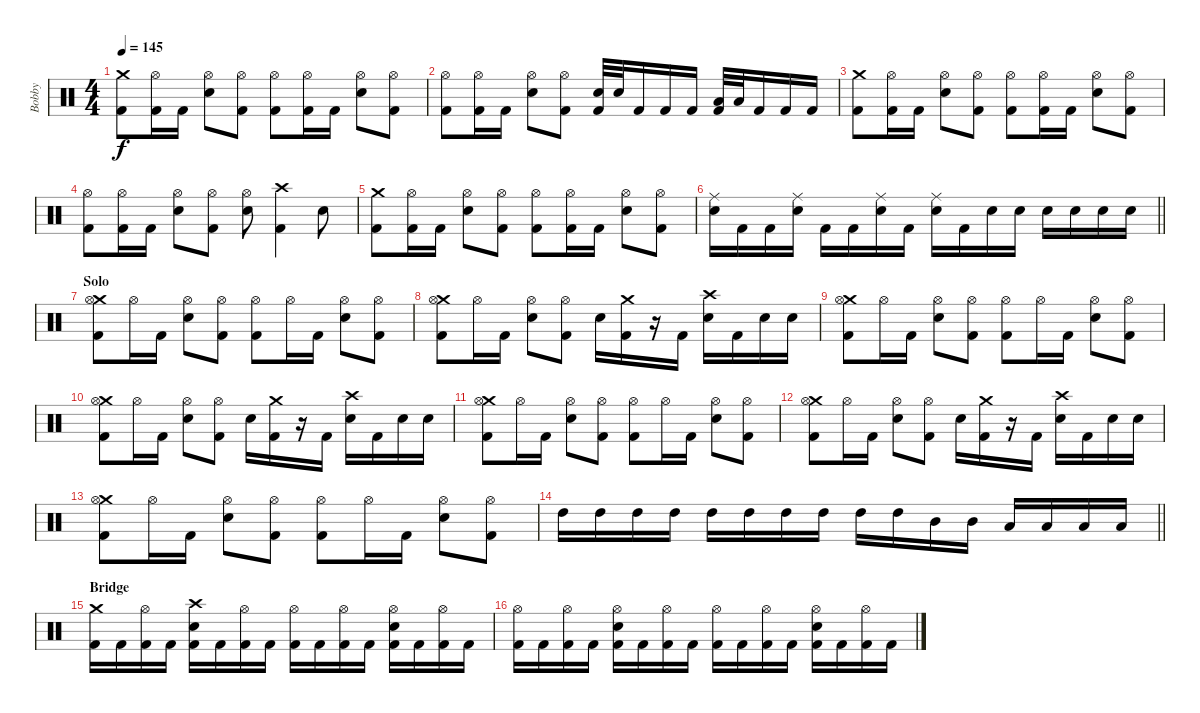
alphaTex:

\track ("Bobby" "Bobby") {instrument percussion}
\staff {score}
\articulation defaults
\ts (4 4)
\tempo 145
\clef neutral
\ks c
("Crash medium (hit)" "Kick (hit) 2").8{dy f} ("Hi-Hat (open)" "Kick (hit) 2").16 "Kick (hit) 2".16 ("Hi-Hat (open)" "Electric Snare (hit)").8 ("Hi-Hat (open)" "Kick (hit) 2").8 ("Hi-Hat (open)" "Kick (hit) 2").8 ("Hi-Hat (open)" "Kick (hit) 2").16 "Kick (hit) 2".16 ("Hi-Hat (open)" "Electric Snare (hit)").8 ("Hi-Hat (open)" "Kick (hit) 2").8 |
("Hi-Hat (open)" "Kick (hit) 2").8 ("Hi-Hat (open)" "Kick (hit) 2").16 "Kick (hit) 2".16 ("Hi-Hat (open)" "Electric Snare (hit)").8 ("Hi-Hat (open)" "Kick (hit) 2").8 ("Electric Snare (hit)" "Kick (hit) 2").32 "Electric Snare (hit)".32 "Kick (hit) 2".16 "Kick (hit) 2".16 "Kick (hit) 2".16 ("Low Tom (hit)" "Kick (hit) 2").32 "Low Tom (hit)".32 "Kick (hit) 2".16 "Kick (hit) 2".16 "Kick (hit) 2".16 |
("Crash medium (hit)" "Kick (hit) 2").8 ("Hi-Hat (open)" "Kick (hit) 2").16 "Kick (hit) 2".16 ("Hi-Hat (open)" "Electric Snare (hit)").8 ("Hi-Hat (open)" "Kick (hit) 2").8 ("Hi-Hat (open)" "Kick (hit) 2").8 ("Hi-Hat (open)" "Kick (hit) 2").16 "Kick (hit) 2".16 ("Hi-Hat (open)" "Electric Snare (hit)").8 ("Hi-Hat (open)" "Kick (hit) 2").8 |
("Hi-Hat (open)" "Kick (hit) 2").8 ("Hi-Hat (open)" "Kick (hit) 2").16 "Kick (hit) 2".16 ("Hi-Hat (open)" "Electric Snare (hit)").8 ("Hi-Hat (open)" "Kick (hit) 2").8 ("Hi-Hat (open)" "Electric Snare (hit)").8 ("Crash high (hit)" "Kick (hit) 2").4 "Electric Snare (hit)".8 |
("Crash medium (hit)" "Kick (hit) 2").8 ("Hi-Hat (open)" "Kick (hit) 2").16 "Kick (hit) 2".16 ("Hi-Hat (open)" "Electric Snare (hit)").8 ("Hi-Hat (open)" "Kick (hit) 2").8 ("Hi-Hat (open)" "Kick (hit) 2").8 ("Hi-Hat (open)" "Kick (hit) 2").16 "Kick (hit) 2".16 ("Hi-Hat (open)" "Electric Snare (hit)").8 ("Hi-Hat (open)" "Kick (hit) 2").8 |
\barLineRight lightlight
("Ride (middle)" "Electric Snare (hit)").16 "Kick (hit) 2".16 "Kick (hit) 2".16 ("Ride (middle)" "Electric Snare (hit)").16 "Kick (hit) 2".16 "Kick (hit) 2".16 ("Ride (middle)" "Electric Snare (hit)").16 "Kick (hit) 2".16 ("Ride (middle)" "Electric Snare (hit)").16 "Kick (hit) 2".16 "Electric Snare (hit)".16 "Electric Snare (hit)".16 "Electric Snare (hit)".16 "Electric Snare (hit)".16 "Electric Snare (hit)".16 "Electric Snare (hit)".16 |
\section ("" "Solo")
("Crash medium (hit)" "Hi-Hat (open)" "Kick (hit) 2").8 "Hi-Hat (open)".16 "Kick (hit) 2".16 ("Hi-Hat (open)" "Electric Snare (hit)").8 ("Hi-Hat (open)" "Kick (hit) 2").8 ("Hi-Hat (open)" "Kick (hit) 2").8 "Hi-Hat (open)".16 "Kick (hit) 2".16 ("Hi-Hat (open)" "Electric Snare (hit)").8 ("Hi-Hat (open)" "Kick (hit) 2").8 |
("Crash medium (hit)" "Hi-Hat (open)" "Kick (hit) 2").8 "Hi-Hat (open)".16 "Kick (hit) 2".16 ("Hi-Hat (open)" "Electric Snare (hit)").8 ("Hi-Hat (open)" "Kick (hit) 2").8 "Electric Snare (hit)".16 ("Crash medium (hit)" "Kick (hit) 2").16 r.16 "Kick (hit) 2".16 ("Crash high (hit)" "Electric Snare (hit)").16 "Kick (hit) 2".16 "Electric Snare (hit)".16 "Electric Snare (hit)".16 |
("Crash medium (hit)" "Hi-Hat (open)" "Kick (hit) 2").8 "Hi-Hat (open)".16 "Kick (hit) 2".16 ("Hi-Hat (open)" "Electric Snare (hit)").8 ("Hi-Hat (open)" "Kick (hit) 2").8 ("Hi-Hat (open)" "Kick (hit) 2").8 "Hi-Hat (open)".16 "Kick (hit) 2".16 ("Hi-Hat (open)" "Electric Snare (hit)").8 ("Hi-Hat (open)" "Kick (hit) 2").8 |
("Crash medium (hit)" "Hi-Hat (open)" "Kick (hit) 2").8 "Hi-Hat (open)".16 "Kick (hit) 2".16 ("Hi-Hat (open)" "Electric Snare (hit)").8 ("Hi-Hat (open)" "Kick (hit) 2").8 "Electric Snare (hit)".16 ("Crash medium (hit)" "Kick (hit) 2").16 r.16 "Kick (hit) 2".16 ("Crash high (hit)" "Electric Snare (hit)").16 "Kick (hit) 2".16 "Electric Snare (hit)".16 "Electric Snare (hit)".16 |
("Crash medium (hit)" "Hi-Hat (open)" "Kick (hit) 2").8 "Hi-Hat (open)".16 "Kick (hit) 2".16 ("Hi-Hat (open)" "Electric Snare (hit)").8 ("Hi-Hat (open)" "Kick (hit) 2").8 ("Hi-Hat (open)" "Kick (hit) 2").8 "Hi-Hat (open)".16 "Kick (hit) 2".16 ("Hi-Hat (open)" "Electric Snare (hit)").8 ("Hi-Hat (open)" "Kick (hit) 2").8 |
("Crash medium (hit)" "Hi-Hat (open)" "Kick (hit) 2").8 "Hi-Hat (open)".16 "Kick (hit) 2".16 ("Hi-Hat (open)" "Electric Snare (hit)").8 ("Hi-Hat (open)" "Kick (hit) 2").8 "Electric Snare (hit)".16 ("Crash medium (hit)" "Kick (hit) 2").16 r.16 "Kick (hit) 2".16 ("Crash high (hit)" "Electric Snare (hit)").16 "Kick (hit) 2".16 "Electric Snare (hit)".16 "Electric Snare (hit)".16 |
("Crash medium (hit)" "Hi-Hat (open)" "Kick (hit) 2").8 "Hi-Hat (open)".16 "Kick (hit) 2".16 ("Hi-Hat (open)" "Electric Snare (hit)").8 ("Hi-Hat (open)" "Kick (hit) 2").8 ("Hi-Hat (open)" "Kick (hit) 2").8 "Hi-Hat (open)".16 "Kick (hit) 2".16 ("Hi-Hat (open)" "Electric Snare (hit)").8 ("Hi-Hat (open)" "Kick (hit) 2").8 |
\barLineRight lightlight "High Tom (hit)".16 "High Tom (hit)".16 "High Tom (hit)".16 "High Tom (hit)".16 "High Tom (hit)".16 "High Tom (hit)".16 "High Tom (hit)".16 "High Tom (hit)".16 "High Tom (hit)".16 "High Tom (hit)".16 "Mid Tom (hit)".16 "Mid Tom (hit)".16 "Low Tom (hit)".16 "Low Tom (hit)".16 "Low Tom (hit)".16 "Low Tom (hit)".16
|
\section ("" "Bridge")
("Crash medium (hit)" "Kick (hit) 2").16 "Kick (hit) 2".16 ("Hi-Hat (open)" "Kick (hit) 2").16 "Kick (hit) 2".16 ("Crash high (hit)" "Electric Snare (hit)" "Kick (hit) 2").16 "Kick (hit) 2".16 ("Hi-Hat (open)" "Kick (hit) 2").16 "Kick (hit) 2".16 ("Hi-Hat (open)" "Kick (hit) 2").16 "Kick (hit) 2".16 ("Hi-Hat (open)" "Kick (hit) 2").16 "Kick (hit) 2".16 ("Hi-Hat (open)" "Electric Snare (hit)" "Kick (hit) 2").16 "Kick (hit) 2".16 ("Hi-Hat (open)" "Kick (hit) 2").16 "Kick (hit) 2".16 |
("Hi-Hat (open)" "Kick (hit) 2").16 "Kick (hit) 2".16 ("Hi-Hat (open)" "Kick (hit) 2").16 "Kick (hit) 2".16 ("Hi-Hat (open)" "Electric Snare (hit)" "Kick (hit) 2").16 "Kick (hit) 2".16 ("Hi-Hat (open)" "Kick (hit) 2").16 "Kick (hit) 2".16 ("Hi-Hat (open)" "Kick (hit) 2").16 "Kick (hit) 2".16 ("Hi-Hat (open)" "Kick (hit) 2").16 "Kick (hit) 2".16 ("Hi-Hat (open)" "Electric Snare (hit)" "Kick (hit) 2").16 "Kick (hit) 2".16 ("Hi-Hat (open)" "Kick (hit) 2").16 "Kick (hit) 2".16
